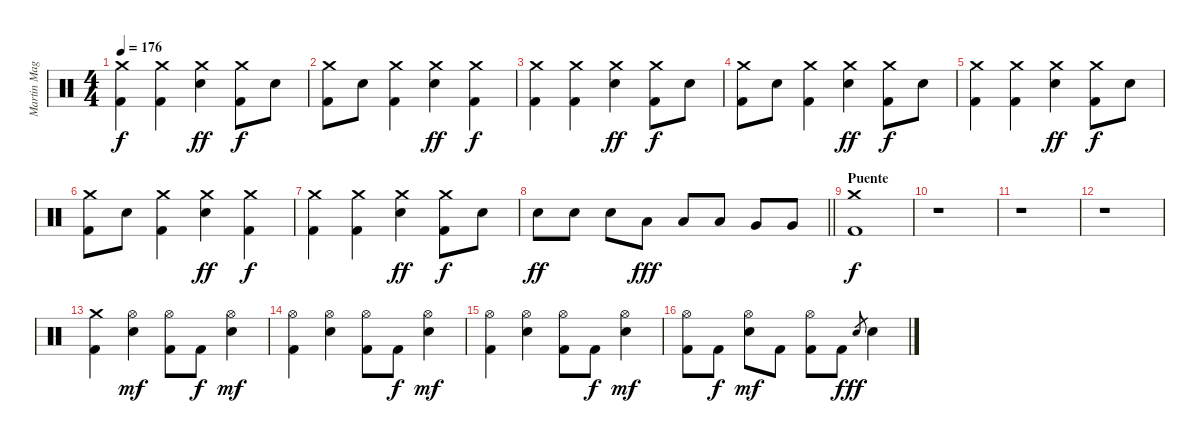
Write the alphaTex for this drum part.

\track ("Martin Magliano" "Martin Mag") {instrument percussion}
\staff {score}
\articulation defaults
\ts (4 4)
\tempo 176
\clef neutral
\ks c
("Crash medium (hit)" "Kick (hit) 2").4{dy f} ("Crash medium (hit)" "Kick (hit) 2").4 ("Crash medium (hit)" "Snare (hit) 2").4{dy ff} ("Crash medium (hit)" "Kick (hit) 2").8{dy f} "Snare (hit) 2".8 |
("Crash medium (hit)" "Kick (hit) 2").8 "Snare (hit) 2".8 ("Crash medium (hit)" "Kick (hit) 2").4 ("Crash medium (hit)" "Snare (hit) 2").4{dy ff} ("Crash medium (hit)" "Kick (hit) 2").4{dy f} |
("Crash medium (hit)" "Kick (hit) 2").4 ("Crash medium (hit)" "Kick (hit) 2").4 ("Crash medium (hit)" "Snare (hit) 2").4{dy ff} ("Crash medium (hit)" "Kick (hit) 2").8{dy f} "Snare (hit) 2".8 |
("Crash medium (hit)" "Kick (hit) 2").8 "Snare (hit) 2".8 ("Crash medium (hit)" "Kick (hit) 2").4 ("Crash medium (hit)" "Snare (hit) 2").4{dy ff} ("Crash medium (hit)" "Kick (hit) 2").8{dy f} "Snare (hit) 2".8 |
("Crash medium (hit)" "Kick (hit) 2").4 ("Crash medium (hit)" "Kick (hit) 2").4 ("Crash medium (hit)" "Snare (hit) 2").4{dy ff} ("Crash medium (hit)" "Kick (hit) 2").8{dy f} "Snare (hit) 2".8 |
("Crash medium (hit)" "Kick (hit) 2").8 "Snare (hit) 2".8 ("Crash medium (hit)" "Kick (hit) 2").4 ("Crash medium (hit)" "Snare (hit) 2").4{dy ff} ("Crash medium (hit)" "Kick (hit) 2").4{dy f} |
("Crash medium (hit)" "Kick (hit) 2").4 ("Crash medium (hit)" "Kick (hit) 2").4 ("Crash medium (hit)" "Snare (hit) 2").4{dy ff} ("Crash medium (hit)" "Kick (hit) 2").8{dy f} "Snare (hit) 2".8 |
\barLineRight lightlight "Snare (hit) 2".8{dy ff} "Snare (hit) 2".8 "Snare (hit) 2".8 "Low Tom (hit)".8{dy fff} "Low Tom (hit)".8 "Low Tom (hit)".8 "Very Low Tom (hit)".8 "Very Low Tom (hit)".8
|
\section ("" "Puente")
("Crash medium (hit)" "Kick (hit) 2").1{dy f} |
r.1 |
r.1 |
r.1 |
("Crash medium (hit)" "Kick (hit) 2").4 ("Hi-Hat (open)" "Snare (hit) 2").4{dy mf} ("Hi-Hat (open)" "Kick (hit) 2").8 "Kick (hit) 2".8{dy f} ("Hi-Hat (open)" "Snare (hit) 2").4{dy mf} |
("Hi-Hat (open)" "Kick (hit) 2").4 ("Hi-Hat (open)" "Snare (hit) 2").4 ("Hi-Hat (open)" "Kick (hit) 2").8 "Kick (hit) 2".8{dy f} ("Hi-Hat (open)" "Snare (hit) 2").4{dy mf} |
("Hi-Hat (open)" "Kick (hit) 2").4 ("Hi-Hat (open)" "Snare (hit) 2").4 ("Hi-Hat (open)" "Kick (hit) 2").8 "Kick (hit) 2".8{dy f} ("Hi-Hat (open)" "Snare (hit) 2").4{dy mf} |
("Hi-Hat (open)" "Kick (hit) 2").8 "Kick (hit) 2".8{dy f} ("Hi-Hat (open)" "Snare (hit) 2").8{dy mf} "Kick (hit) 2".8 ("Hi-Hat (open)" "Kick (hit) 2").8 "Kick (hit) 2".8{dy f} "Snare (hit) 2".8{gr dy ff} "Snare (hit) 2".4
